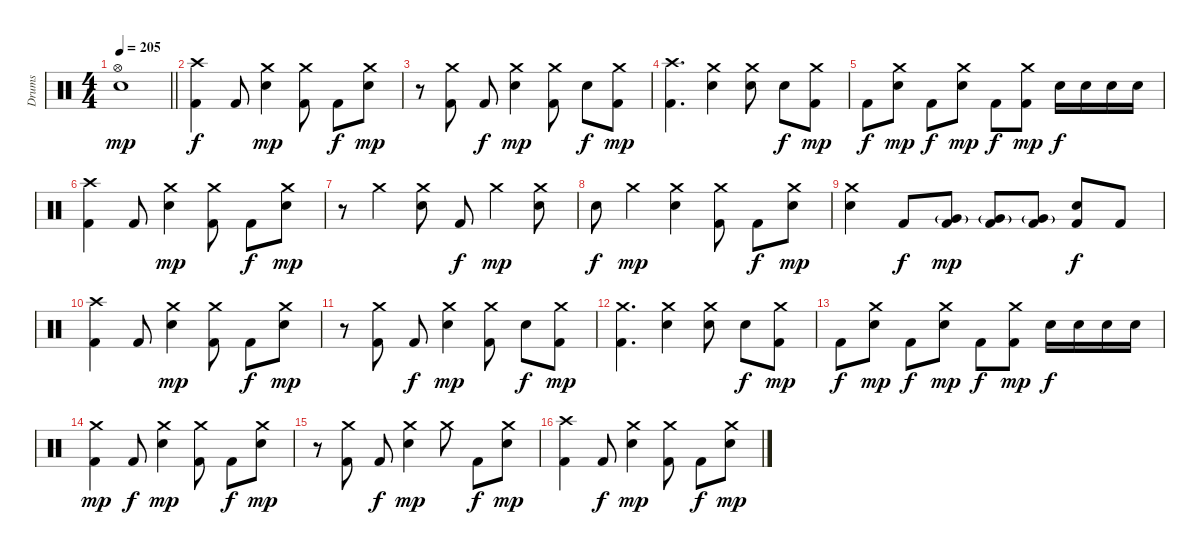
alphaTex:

\track ("Drums" "Drums") {instrument percussion}
\staff {score}
\articulation defaults
\ts (4 4)
\tempo 205
\clef neutral
\barLineRight lightlight
\ks c
("Hi-Hat (open)" "Electric Snare (hit)").1{dy mp} |
("Crash high (hit)" "Kick (hit) 2").4{dy f} "Kick (hit) 2".8 ("Crash medium (hit)" "Electric Snare (hit)").4{dy mp} ("Crash medium (hit)" "Kick (hit) 2").8 "Kick (hit) 2".8{dy f} ("Crash medium (hit)" "Electric Snare (hit)").8{dy mp} |
r.8 ("Crash medium (hit)" "Kick (hit) 2").8 "Kick (hit) 2".8{dy f} ("Crash medium (hit)" "Electric Snare (hit)").4{dy mp} ("Crash medium (hit)" "Kick (hit) 2").8 "Electric Snare (hit)".8{dy f} ("Crash medium (hit)" "Kick (hit) 2").8{dy mp} |
("Crash high (hit)" "Kick (hit) 2").4{d} ("Crash medium (hit)" "Electric Snare (hit)").4 ("Crash medium (hit)" "Electric Snare (hit)").8 "Electric Snare (hit)".8{dy f} ("Crash medium (hit)" "Kick (hit) 2").8{dy mp} |
"Kick (hit) 2".8{dy f} ("Crash medium (hit)" "Electric Snare (hit)").8{dy mp} "Kick (hit) 2".8{dy f} ("Crash medium (hit)" "Electric Snare (hit)").8{dy mp} "Kick (hit) 2".8{dy f} ("Crash medium (hit)" "Kick (hit) 2").8{dy mp} "Electric Snare (hit)".16{dy f} "Electric Snare (hit)".16 "Electric Snare (hit)".16 "Electric Snare (hit)".16 |
("Crash high (hit)" "Kick (hit) 2").4 "Kick (hit) 2".8 ("Crash medium (hit)" "Electric Snare (hit)").4{dy mp} ("Crash medium (hit)" "Kick (hit) 2").8 "Kick (hit) 2".8{dy f} ("Crash medium (hit)" "Electric Snare (hit)").8{dy mp} |
r.8 "Crash medium (hit)".4 ("Crash medium (hit)" "Electric Snare (hit)").8 "Kick (hit) 2".8{dy f} "Crash medium (hit)".4{dy mp} ("Crash medium (hit)" "Electric Snare (hit)").8 |
"Electric Snare (hit)".8{dy f} "Crash medium (hit)".4{dy mp} ("Crash medium (hit)" "Electric Snare (hit)").4 ("Crash medium (hit)" "Kick (hit) 2").8 "Kick (hit) 2".8{dy f} ("Crash medium (hit)" "Electric Snare (hit)").8{dy mp} |
("Crash medium (hit)" "Electric Snare (hit)").4 "Kick (hit) 2".8{dy f} ("Very Low Tom (hit)"{g} "Kick (hit) 2").8{dy mp} ("Very Low Tom (hit)"{g} "Kick (hit) 2").8 ("Very Low Tom (hit)"{g} "Kick (hit) 2").8 ("Electric Snare (hit)" "Kick (hit) 2").8{dy f} "Kick (hit) 2".8 |
("Crash high (hit)" "Kick (hit) 2").4 "Kick (hit) 2".8 ("Crash medium (hit)" "Electric Snare (hit)").4{dy mp} ("Crash medium (hit)" "Kick (hit) 2").8 "Kick (hit) 2".8{dy f} ("Crash medium (hit)" "Electric Snare (hit)").8{dy mp} |
r.8 ("Crash medium (hit)" "Kick (hit) 2").8 "Kick (hit) 2".8{dy f} ("Crash medium (hit)" "Electric Snare (hit)").4{dy mp} ("Crash medium (hit)" "Kick (hit) 2").8 "Electric Snare (hit)".8{dy f} ("Crash medium (hit)" "Kick (hit) 2").8{dy mp} |
("Crash medium (hit)" "Kick (hit) 2").4{d} ("Crash medium (hit)" "Electric Snare (hit)").4 ("Crash medium (hit)" "Electric Snare (hit)").8 "Electric Snare (hit)".8{dy f} ("Crash medium (hit)" "Kick (hit) 2").8{dy mp} |
"Kick (hit) 2".8{dy f} ("Crash medium (hit)" "Electric Snare (hit)").8{dy mp} "Kick (hit) 2".8{dy f} ("Crash medium (hit)" "Electric Snare (hit)").8{dy mp} "Kick (hit) 2".8{dy f} ("Crash medium (hit)" "Kick (hit) 2").8{dy mp} "Electric Snare (hit)".16{dy f} "Electric Snare (hit)".16 "Electric Snare (hit)".16 "Electric Snare (hit)".16 |
("Crash medium (hit)" "Kick (hit) 2").4{dy mp} "Kick (hit) 2".8{dy f} ("Crash medium (hit)" "Electric Snare (hit)").4{dy mp} ("Crash medium (hit)" "Kick (hit) 2").8 "Kick (hit) 2".8{dy f} ("Crash medium (hit)" "Electric Snare (hit)").8{dy mp} |
r.8 ("Crash medium (hit)" "Kick (hit) 2").8 "Kick (hit) 2".8{dy f} ("Crash medium (hit)" "Electric Snare (hit)").4{dy mp} "Crash medium (hit)".8 "Kick (hit) 2".8{dy f} ("Crash medium (hit)" "Electric Snare (hit)").8{dy mp} |
("Crash high (hit)" "Kick (hit) 2").4 "Kick (hit) 2".8{dy f} ("Crash medium (hit)" "Electric Snare (hit)").4{dy mp} ("Crash medium (hit)" "Kick (hit) 2").8 "Kick (hit) 2".8{dy f} ("Crash medium (hit)" "Electric Snare (hit)").8{dy mp}
